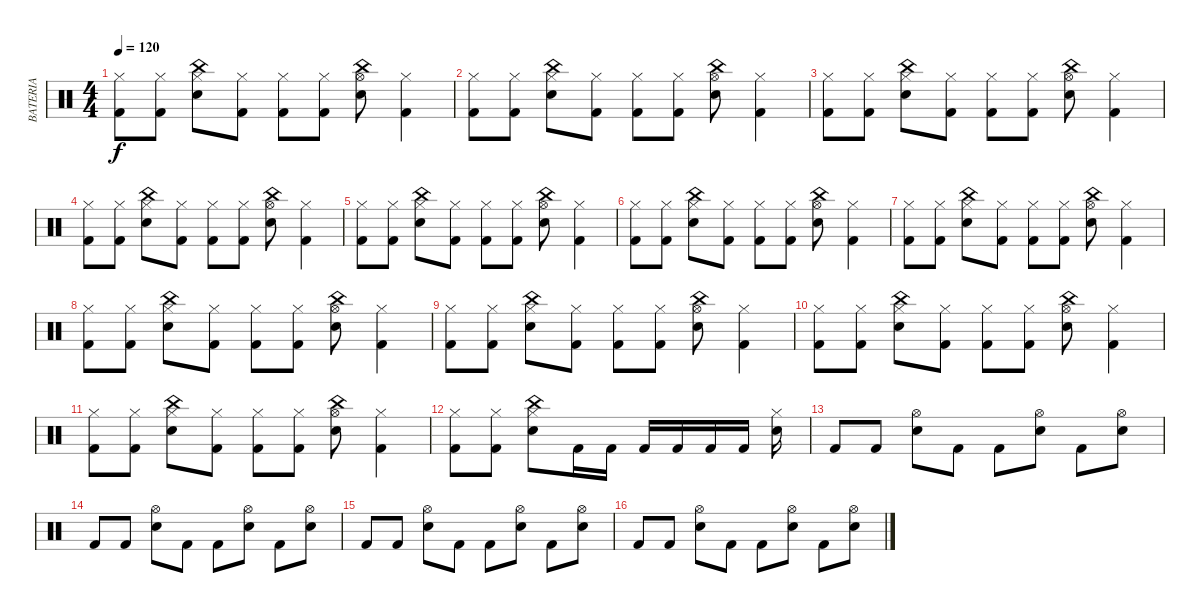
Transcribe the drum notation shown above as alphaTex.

\track ("BATERIA" "BATERIA") {instrument percussion}
\staff {score}
\articulation defaults
\ts (4 4)
\tempo 120
\clef neutral
\ks c
("Hi-Hat (closed)" "Kick (hit) 2").8{dy f} ("Hi-Hat (closed)" "Kick (hit) 2").8 ("Snare (hit) 2" "Hi-Hat (closed)" "China (hit)").8 ("Kick (hit) 2" "Hi-Hat (closed)").8 ("Kick (hit) 2" "Hi-Hat (closed)").8 ("Kick (hit) 2" "Hi-Hat (closed)").8 ("Snare (hit) 2" "Hi-Hat (open)" "China (hit)").8 ("Kick (hit) 2" "Hi-Hat (closed)").4 |
("Hi-Hat (closed)" "Kick (hit) 2").8 ("Hi-Hat (closed)" "Kick (hit) 2").8 ("Snare (hit) 2" "Hi-Hat (closed)" "China (hit)").8 ("Kick (hit) 2" "Hi-Hat (closed)").8 ("Kick (hit) 2" "Hi-Hat (closed)").8 ("Kick (hit) 2" "Hi-Hat (closed)").8 ("Snare (hit) 2" "Hi-Hat (open)" "China (hit)").8 ("Kick (hit) 2" "Hi-Hat (closed)").4 |
("Hi-Hat (closed)" "Kick (hit) 2").8 ("Hi-Hat (closed)" "Kick (hit) 2").8 ("Snare (hit) 2" "Hi-Hat (closed)" "China (hit)").8 ("Kick (hit) 2" "Hi-Hat (closed)").8 ("Kick (hit) 2" "Hi-Hat (closed)").8 ("Kick (hit) 2" "Hi-Hat (closed)").8 ("Snare (hit) 2" "Hi-Hat (open)" "China (hit)").8 ("Kick (hit) 2" "Hi-Hat (closed)").4 |
("Hi-Hat (closed)" "Kick (hit) 2").8 ("Hi-Hat (closed)" "Kick (hit) 2").8 ("Snare (hit) 2" "Hi-Hat (closed)" "China (hit)").8 ("Kick (hit) 2" "Hi-Hat (closed)").8 ("Kick (hit) 2" "Hi-Hat (closed)").8 ("Kick (hit) 2" "Hi-Hat (closed)").8 ("Snare (hit) 2" "Hi-Hat (open)" "China (hit)").8 ("Kick (hit) 2" "Hi-Hat (closed)").4 |
("Hi-Hat (closed)" "Kick (hit) 2").8 ("Hi-Hat (closed)" "Kick (hit) 2").8 ("Snare (hit) 2" "Hi-Hat (closed)" "China (hit)").8 ("Kick (hit) 2" "Hi-Hat (closed)").8 ("Kick (hit) 2" "Hi-Hat (closed)").8 ("Kick (hit) 2" "Hi-Hat (closed)").8 ("Snare (hit) 2" "Hi-Hat (open)" "China (hit)").8 ("Kick (hit) 2" "Hi-Hat (closed)").4 |
("Hi-Hat (closed)" "Kick (hit) 2").8 ("Hi-Hat (closed)" "Kick (hit) 2").8 ("Snare (hit) 2" "Hi-Hat (closed)" "China (hit)").8 ("Kick (hit) 2" "Hi-Hat (closed)").8 ("Kick (hit) 2" "Hi-Hat (closed)").8 ("Kick (hit) 2" "Hi-Hat (closed)").8 ("Snare (hit) 2" "Hi-Hat (open)" "China (hit)").8 ("Kick (hit) 2" "Hi-Hat (closed)").4 |
("Hi-Hat (closed)" "Kick (hit) 2").8 ("Hi-Hat (closed)" "Kick (hit) 2").8 ("Snare (hit) 2" "Hi-Hat (closed)" "China (hit)").8 ("Kick (hit) 2" "Hi-Hat (closed)").8 ("Kick (hit) 2" "Hi-Hat (closed)").8 ("Kick (hit) 2" "Hi-Hat (closed)").8 ("Snare (hit) 2" "Hi-Hat (open)" "China (hit)").8 ("Kick (hit) 2" "Hi-Hat (closed)").4 |
("Hi-Hat (closed)" "Kick (hit) 2").8 ("Hi-Hat (closed)" "Kick (hit) 2").8 ("Snare (hit) 2" "Hi-Hat (closed)" "China (hit)").8 ("Kick (hit) 2" "Hi-Hat (closed)").8 ("Kick (hit) 2" "Hi-Hat (closed)").8 ("Kick (hit) 2" "Hi-Hat (closed)").8 ("Snare (hit) 2" "Hi-Hat (open)" "China (hit)").8 ("Kick (hit) 2" "Hi-Hat (closed)").4 |
("Hi-Hat (closed)" "Kick (hit) 2").8 ("Hi-Hat (closed)" "Kick (hit) 2").8 ("Snare (hit) 2" "Hi-Hat (closed)" "China (hit)").8 ("Kick (hit) 2" "Hi-Hat (closed)").8 ("Kick (hit) 2" "Hi-Hat (closed)").8 ("Kick (hit) 2" "Hi-Hat (closed)").8 ("Snare (hit) 2" "Hi-Hat (open)" "China (hit)").8 ("Kick (hit) 2" "Hi-Hat (closed)").4 |
("Hi-Hat (closed)" "Kick (hit) 2").8 ("Hi-Hat (closed)" "Kick (hit) 2").8 ("Snare (hit) 2" "Hi-Hat (closed)" "China (hit)").8 ("Kick (hit) 2" "Hi-Hat (closed)").8 ("Kick (hit) 2" "Hi-Hat (closed)").8 ("Kick (hit) 2" "Hi-Hat (closed)").8 ("Snare (hit) 2" "Hi-Hat (open)" "China (hit)").8 ("Kick (hit) 2" "Hi-Hat (closed)").4 |
("Hi-Hat (closed)" "Kick (hit) 2").8 ("Hi-Hat (closed)" "Kick (hit) 2").8 ("Snare (hit) 2" "Hi-Hat (closed)" "China (hit)").8 ("Kick (hit) 2" "Hi-Hat (closed)").8 ("Kick (hit) 2" "Hi-Hat (closed)").8 ("Kick (hit) 2" "Hi-Hat (closed)").8 ("Snare (hit) 2" "Hi-Hat (open)" "China (hit)").8 ("Kick (hit) 2" "Hi-Hat (closed)").4 |
("Hi-Hat (closed)" "Kick (hit) 2").8 ("Hi-Hat (closed)" "Kick (hit) 2").8 ("Snare (hit) 2" "Hi-Hat (closed)" "China (hit)").8 "Kick (hit) 2".16 "Kick (hit) 2".16 "Kick (hit) 2".16 "Kick (hit) 2".16 "Kick (hit) 2".16 "Kick (hit) 2".16 ("Snare (hit) 2" "Hi-Hat (closed)").16 |
"Kick (hit) 2".8 "Kick (hit) 2".8 ("Snare (hit) 2" "Hi-Hat (open)").8 "Kick (hit) 2".8 "Kick (hit) 2".8 ("Snare (hit) 2" "Hi-Hat (open)").8 "Kick (hit) 2".8 ("Snare (hit) 2" "Hi-Hat (open)").8 |
"Kick (hit) 2".8 "Kick (hit) 2".8 ("Snare (hit) 2" "Hi-Hat (open)").8 "Kick (hit) 2".8 "Kick (hit) 2".8 ("Snare (hit) 2" "Hi-Hat (open)").8 "Kick (hit) 2".8 ("Snare (hit) 2" "Hi-Hat (open)").8 |
"Kick (hit) 2".8 "Kick (hit) 2".8 ("Snare (hit) 2" "Hi-Hat (open)").8 "Kick (hit) 2".8 "Kick (hit) 2".8 ("Snare (hit) 2" "Hi-Hat (open)").8 "Kick (hit) 2".8 ("Snare (hit) 2" "Hi-Hat (open)").8 |
"Kick (hit) 2".8 "Kick (hit) 2".8 ("Snare (hit) 2" "Hi-Hat (open)").8 "Kick (hit) 2".8 "Kick (hit) 2".8 ("Snare (hit) 2" "Hi-Hat (open)").8 "Kick (hit) 2".8 ("Snare (hit) 2" "Hi-Hat (open)").8
